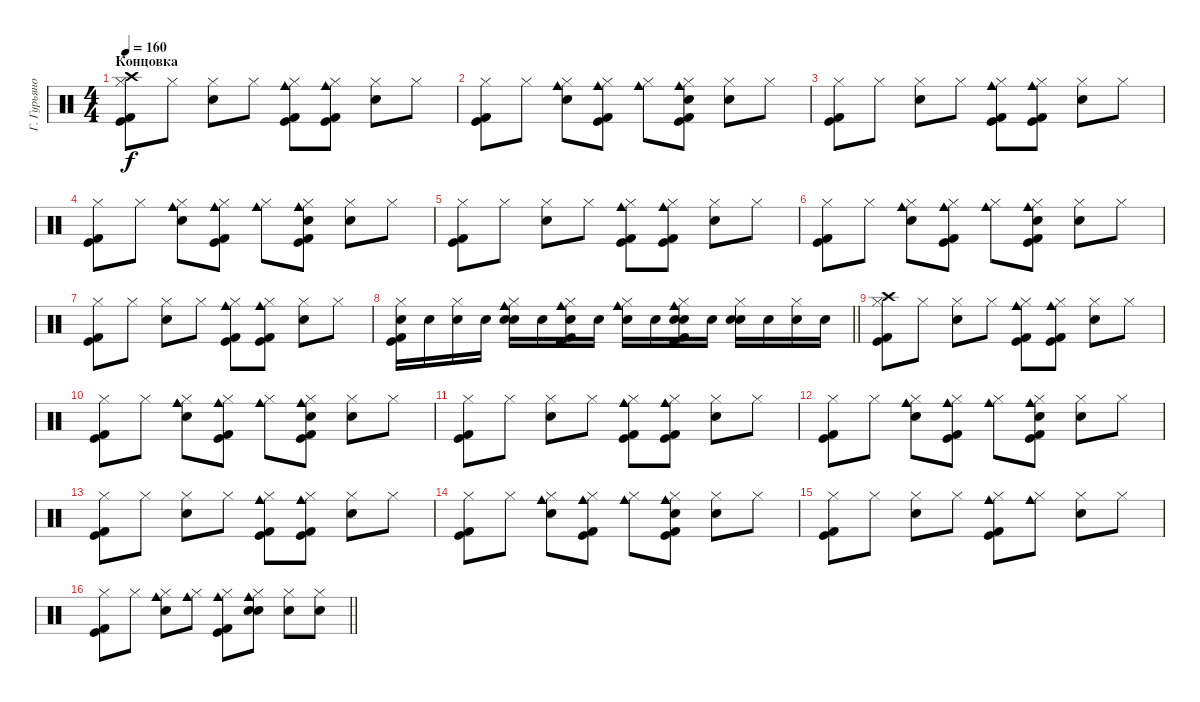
\track ("Г. Гурьянов" "Г. Гурьяно") {instrument percussion}
\staff
\articulation defaults
\ts (4 4)
\section ("" "Концовка")
\tempo 160
\clef neutral
\ks c
("Hi-Hat (closed)" "Crash high (hit)" "Kick (hit)" "Kick (hit) 2").8{dy f} "Hi-Hat (closed)".8 ("Hi-Hat (closed)" "Snare (hit) 2").8 "Hi-Hat (closed)".8 ("Hi-Hat (closed)" "Cowbell medium (hit)" "Kick (hit)" "Kick (hit) 2").8 ("Hi-Hat (closed)" "Cowbell medium (hit)" "Kick (hit)" "Kick (hit) 2").8 ("Hi-Hat (closed)" "Snare (hit) 2").8 "Hi-Hat (closed)".8 |
("Hi-Hat (closed)" "Kick (hit)" "Kick (hit) 2").8 "Hi-Hat (closed)".8 ("Hi-Hat (closed)" "Cowbell medium (hit)" "Snare (hit) 2").8 ("Hi-Hat (closed)" "Cowbell medium (hit)" "Kick (hit)" "Kick (hit) 2").8 ("Hi-Hat (closed)" "Cowbell medium (hit)").8 ("Hi-Hat (closed)" "Cowbell medium (hit)" "Hand Clap (hit)" "Kick (hit)" "Kick (hit) 2").8 ("Hi-Hat (closed)" "Snare (hit) 2").8 "Hi-Hat (closed)".8 |
("Hi-Hat (closed)" "Kick (hit)" "Kick (hit) 2").8 "Hi-Hat (closed)".8 ("Hi-Hat (closed)" "Snare (hit) 2").8 "Hi-Hat (closed)".8 ("Hi-Hat (closed)" "Cowbell medium (hit)" "Kick (hit)" "Kick (hit) 2").8 ("Hi-Hat (closed)" "Cowbell medium (hit)" "Kick (hit)" "Kick (hit) 2").8 ("Hi-Hat (closed)" "Snare (hit) 2").8 "Hi-Hat (closed)".8 |
("Hi-Hat (closed)" "Kick (hit)" "Kick (hit) 2").8 "Hi-Hat (closed)".8 ("Hi-Hat (closed)" "Cowbell medium (hit)" "Snare (hit) 2").8 ("Hi-Hat (closed)" "Cowbell medium (hit)" "Kick (hit)" "Kick (hit) 2").8 ("Hi-Hat (closed)" "Cowbell medium (hit)").8 ("Hi-Hat (closed)" "Cowbell medium (hit)" "Hand Clap (hit)" "Kick (hit)" "Kick (hit) 2").8 ("Hi-Hat (closed)" "Snare (hit) 2").8 "Hi-Hat (closed)".8 |
("Hi-Hat (closed)" "Kick (hit)" "Kick (hit) 2").8 "Hi-Hat (closed)".8 ("Hi-Hat (closed)" "Snare (hit) 2").8 "Hi-Hat (closed)".8 ("Hi-Hat (closed)" "Cowbell medium (hit)" "Kick (hit)" "Kick (hit) 2").8 ("Hi-Hat (closed)" "Cowbell medium (hit)" "Kick (hit)" "Kick (hit) 2").8 ("Hi-Hat (closed)" "Snare (hit) 2").8 "Hi-Hat (closed)".8 |
("Hi-Hat (closed)" "Kick (hit)" "Kick (hit) 2").8 "Hi-Hat (closed)".8 ("Hi-Hat (closed)" "Cowbell medium (hit)" "Snare (hit) 2").8 ("Hi-Hat (closed)" "Cowbell medium (hit)" "Kick (hit)" "Kick (hit) 2").8 ("Hi-Hat (closed)" "Cowbell medium (hit)").8 ("Hi-Hat (closed)" "Cowbell medium (hit)" "Hand Clap (hit)" "Kick (hit)" "Kick (hit) 2").8 ("Hi-Hat (closed)" "Snare (hit) 2").8 "Hi-Hat (closed)".8 |
("Hi-Hat (closed)" "Kick (hit)" "Kick (hit) 2").8 "Hi-Hat (closed)".8 ("Hi-Hat (closed)" "Snare (hit) 2").8 "Hi-Hat (closed)".8 ("Hi-Hat (closed)" "Cowbell medium (hit)" "Kick (hit)" "Kick (hit) 2").8 ("Hi-Hat (closed)" "Cowbell medium (hit)" "Kick (hit)" "Kick (hit) 2").8 ("Hi-Hat (closed)" "Snare (hit) 2").8 "Hi-Hat (closed)".8 |
\barLineRight lightlight
("Hi-Hat (closed)" "Electric Snare (hit)" "Kick (hit)" "Kick (hit) 2").16 "Electric Snare (hit)".16 ("Hi-Hat (closed)" "Electric Snare (hit)").16 "Electric Snare (hit)".16 ("Hi-Hat (closed)" "Electric Snare (hit)" "Snare (hit) 2" "Cowbell medium (hit)").16 "Electric Snare (hit)".16 ("Hi-Hat (closed)" "Electric Snare (hit)" "Cowbell medium (hit)" "Kick (hit)" "Kick (hit) 2").16 "Electric Snare (hit)".16 ("Hi-Hat (closed)" "Electric Snare (hit)" "Cowbell medium (hit)").16 "Electric Snare (hit)".16 ("Hi-Hat (closed)" "Electric Snare (hit)" "Kick (hit)" "Cowbell medium (hit)" "Hand Clap (hit)" "Kick (hit) 2").16 "Electric Snare (hit)".16 ("Hi-Hat (closed)" "Electric Snare (hit)" "Snare (hit) 2").16 "Electric Snare (hit)".16 ("Hi-Hat (closed)" "Electric Snare (hit)").16 "Electric Snare (hit)".16 |
("Hi-Hat (closed)" "Crash high (hit)" "Kick (hit)" "Kick (hit) 2").8 "Hi-Hat (closed)".8 ("Hi-Hat (closed)" "Snare (hit) 2").8 "Hi-Hat (closed)".8 ("Hi-Hat (closed)" "Cowbell medium (hit)" "Kick (hit)" "Kick (hit) 2").8 ("Hi-Hat (closed)" "Cowbell medium (hit)" "Kick (hit)" "Kick (hit) 2").8 ("Hi-Hat (closed)" "Snare (hit) 2").8 "Hi-Hat (closed)".8 |
("Hi-Hat (closed)" "Kick (hit)" "Kick (hit) 2").8 "Hi-Hat (closed)".8 ("Hi-Hat (closed)" "Cowbell medium (hit)" "Snare (hit) 2").8 ("Hi-Hat (closed)" "Cowbell medium (hit)" "Kick (hit)" "Kick (hit) 2").8 ("Hi-Hat (closed)" "Cowbell medium (hit)").8 ("Hi-Hat (closed)" "Cowbell medium (hit)" "Hand Clap (hit)" "Kick (hit)" "Kick (hit) 2").8 ("Hi-Hat (closed)" "Snare (hit) 2").8 "Hi-Hat (closed)".8 |
("Hi-Hat (closed)" "Kick (hit)" "Kick (hit) 2").8 "Hi-Hat (closed)".8 ("Hi-Hat (closed)" "Snare (hit) 2").8 "Hi-Hat (closed)".8 ("Hi-Hat (closed)" "Cowbell medium (hit)" "Kick (hit)" "Kick (hit) 2").8 ("Hi-Hat (closed)" "Cowbell medium (hit)" "Kick (hit)" "Kick (hit) 2").8 ("Hi-Hat (closed)" "Snare (hit) 2").8 "Hi-Hat (closed)".8 |
("Hi-Hat (closed)" "Kick (hit)" "Kick (hit) 2").8 "Hi-Hat (closed)".8 ("Hi-Hat (closed)" "Cowbell medium (hit)" "Snare (hit) 2").8 ("Hi-Hat (closed)" "Cowbell medium (hit)" "Kick (hit)" "Kick (hit) 2").8 ("Hi-Hat (closed)" "Cowbell medium (hit)").8 ("Hi-Hat (closed)" "Cowbell medium (hit)" "Hand Clap (hit)" "Kick (hit)" "Kick (hit) 2").8 ("Hi-Hat (closed)" "Snare (hit) 2").8 "Hi-Hat (closed)".8 |
("Hi-Hat (closed)" "Kick (hit)" "Kick (hit) 2").8 "Hi-Hat (closed)".8 ("Hi-Hat (closed)" "Snare (hit) 2").8 "Hi-Hat (closed)".8 ("Hi-Hat (closed)" "Cowbell medium (hit)" "Kick (hit)" "Kick (hit) 2").8 ("Hi-Hat (closed)" "Cowbell medium (hit)" "Kick (hit)" "Kick (hit) 2").8 ("Hi-Hat (closed)" "Snare (hit) 2").8 "Hi-Hat (closed)".8 |
("Hi-Hat (closed)" "Kick (hit)" "Kick (hit) 2").8 "Hi-Hat (closed)".8 ("Hi-Hat (closed)" "Cowbell medium (hit)" "Snare (hit) 2").8 ("Hi-Hat (closed)" "Cowbell medium (hit)" "Kick (hit)" "Kick (hit) 2").8 ("Hi-Hat (closed)" "Cowbell medium (hit)").8 ("Hi-Hat (closed)" "Cowbell medium (hit)" "Hand Clap (hit)" "Kick (hit)" "Kick (hit) 2").8 ("Hi-Hat (closed)" "Snare (hit) 2").8 "Hi-Hat (closed)".8 |
("Hi-Hat (closed)" "Kick (hit)" "Kick (hit) 2").8 "Hi-Hat (closed)".8 ("Hi-Hat (closed)" "Snare (hit) 2").8 "Hi-Hat (closed)".8 ("Hi-Hat (closed)" "Cowbell medium (hit)" "Kick (hit)" "Kick (hit) 2").8 ("Hi-Hat (closed)" "Cowbell medium (hit)").8 ("Hi-Hat (closed)" "Snare (hit) 2").8 "Hi-Hat (closed)".8 |
\barLineRight lightlight
("Hi-Hat (closed)" "Kick (hit)" "Kick (hit) 2").8 "Hi-Hat (closed)".8 ("Hi-Hat (closed)" "Cowbell medium (hit)" "Snare (hit) 2").8 ("Hi-Hat (closed)" "Cowbell medium (hit)").8 ("Hi-Hat (closed)" "Cowbell medium (hit)" "Kick (hit)" "Kick (hit) 2").8 ("Hi-Hat (closed)" "Cowbell medium (hit)" "Snare (hit) 2" "Hand Clap (hit)").8 ("Hi-Hat (closed)" "Snare (hit) 2").8 ("Hi-Hat (closed)" "Snare (hit) 2").8
